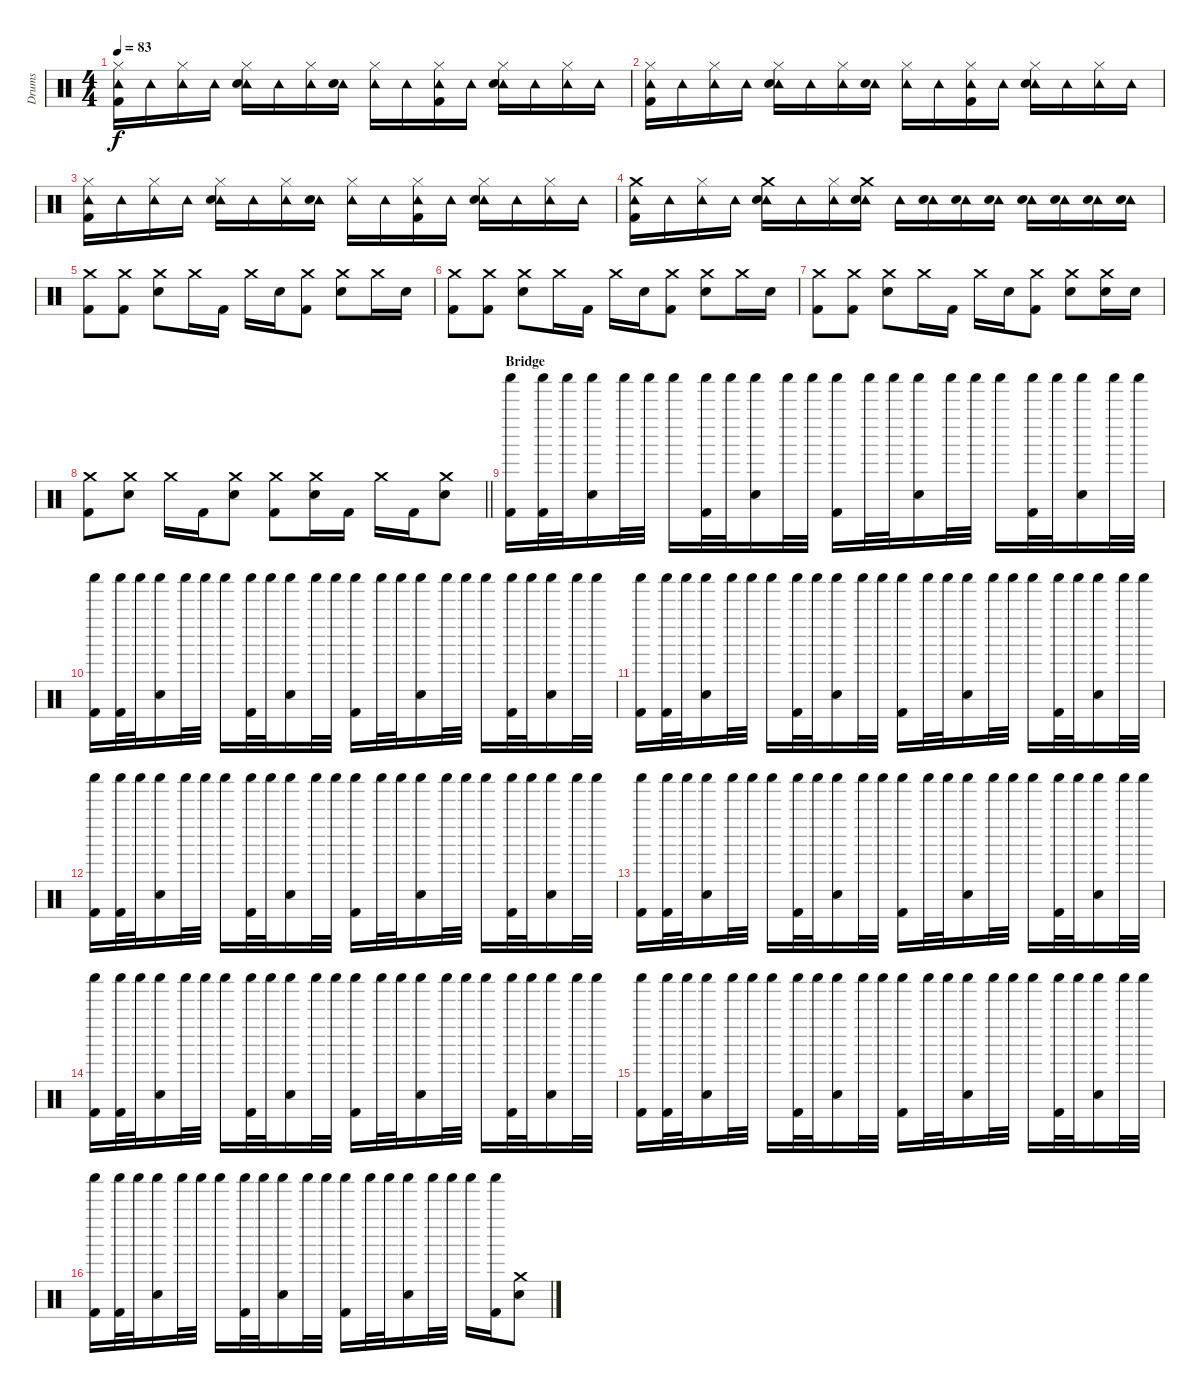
\track ("Drums" "Drums") {instrument percussion}
\staff {score}
\articulation defaults
\ts (4 4)
\tempo 83
\clef neutral
\ks c
("Tambourine (hit)" "Hi-Hat (closed)" "Kick (hit) 2").16{dy f} "Tambourine (hit)".16 ("Tambourine (hit)" "Hi-Hat (closed)").16 "Tambourine (hit)".16 ("Tambourine (hit)" "Hi-Hat (closed)" "Snare (hit) 2").16 "Tambourine (hit)".16 ("Tambourine (hit)" "Hi-Hat (closed)").16 ("Tambourine (hit)" "Snare (hit) 2").16 ("Tambourine (hit)" "Hi-Hat (closed)").16 "Tambourine (hit)".16 ("Tambourine (hit)" "Hi-Hat (closed)" "Kick (hit) 2").16 "Tambourine (hit)".16 ("Tambourine (hit)" "Hi-Hat (closed)" "Snare (hit) 2").16 "Tambourine (hit)".16 ("Tambourine (hit)" "Hi-Hat (closed)").16 "Tambourine (hit)".16 |
("Tambourine (hit)" "Hi-Hat (closed)" "Kick (hit) 2").16 "Tambourine (hit)".16 ("Tambourine (hit)" "Hi-Hat (closed)").16 "Tambourine (hit)".16 ("Tambourine (hit)" "Hi-Hat (closed)" "Snare (hit) 2").16 "Tambourine (hit)".16 ("Tambourine (hit)" "Hi-Hat (closed)").16 ("Tambourine (hit)" "Snare (hit) 2").16 ("Tambourine (hit)" "Hi-Hat (closed)").16 "Tambourine (hit)".16 ("Tambourine (hit)" "Hi-Hat (closed)" "Kick (hit) 2").16 "Tambourine (hit)".16 ("Tambourine (hit)" "Hi-Hat (closed)" "Snare (hit) 2").16 "Tambourine (hit)".16 ("Tambourine (hit)" "Hi-Hat (closed)").16 "Tambourine (hit)".16 |
("Tambourine (hit)" "Hi-Hat (closed)" "Kick (hit) 2").16 "Tambourine (hit)".16 ("Tambourine (hit)" "Hi-Hat (closed)").16 "Tambourine (hit)".16 ("Tambourine (hit)" "Hi-Hat (closed)" "Snare (hit) 2").16 "Tambourine (hit)".16 ("Tambourine (hit)" "Hi-Hat (closed)").16 ("Tambourine (hit)" "Snare (hit) 2").16 ("Tambourine (hit)" "Hi-Hat (closed)").16 "Tambourine (hit)".16 ("Tambourine (hit)" "Hi-Hat (closed)" "Kick (hit) 2").16 "Tambourine (hit)".16 ("Tambourine (hit)" "Hi-Hat (closed)" "Snare (hit) 2").16 "Tambourine (hit)".16 ("Tambourine (hit)" "Hi-Hat (closed)").16 "Tambourine (hit)".16 |
("Tambourine (hit)" "Crash medium (hit)" "Kick (hit) 2").16 "Tambourine (hit)".16 ("Tambourine (hit)" "Hi-Hat (closed)").16 "Tambourine (hit)".16 ("Tambourine (hit)" "Crash medium (hit)" "Snare (hit) 2").16 "Tambourine (hit)".16 ("Tambourine (hit)" "Hi-Hat (closed)").16 ("Tambourine (hit)" "Crash medium (hit)" "Snare (hit) 2").16 "Tambourine (hit)".16 ("Tambourine (hit)" "Snare (hit) 2").16 ("Tambourine (hit)" "Snare (hit) 2").16 ("Tambourine (hit)" "Snare (hit) 2").16 ("Tambourine (hit)" "Snare (hit) 2").16 ("Tambourine (hit)" "Snare (hit) 2").16 ("Tambourine (hit)" "Snare (hit) 2").16 ("Tambourine (hit)" "Snare (hit) 2").16 |
("Crash medium (hit)" "Kick (hit) 2").8 ("Crash medium (hit)" "Kick (hit) 2").8 ("Crash medium (hit)" "Snare (hit) 2").8 "Crash medium (hit)".16 "Kick (hit) 2".16 "Crash medium (hit)".16 "Snare (hit) 2".16 ("Crash medium (hit)" "Kick (hit) 2").8 ("Crash medium (hit)" "Snare (hit) 2").8 "Crash medium (hit)".16 "Snare (hit) 2".16 |
("Crash medium (hit)" "Kick (hit) 2").8 ("Crash medium (hit)" "Kick (hit) 2").8 ("Crash medium (hit)" "Snare (hit) 2").8 "Crash medium (hit)".16 "Kick (hit) 2".16 "Crash medium (hit)".16 "Snare (hit) 2".16 ("Crash medium (hit)" "Kick (hit) 2").8 ("Crash medium (hit)" "Snare (hit) 2").8 "Crash medium (hit)".16 "Snare (hit) 2".16 |
("Crash medium (hit)" "Kick (hit) 2").8 ("Crash medium (hit)" "Kick (hit) 2").8 ("Crash medium (hit)" "Snare (hit) 2").8 "Crash medium (hit)".16 "Kick (hit) 2".16 "Crash medium (hit)".16 "Snare (hit) 2".16 ("Crash medium (hit)" "Kick (hit) 2").8 ("Crash medium (hit)" "Snare (hit) 2").8 ("Crash medium (hit)" "Snare (hit) 2").16 "Snare (hit) 2".16 |
\barLineRight lightlight
("Crash medium (hit)" "Kick (hit) 2").8 ("Crash medium (hit)" "Snare (hit) 2").8 "Crash medium (hit)".16 "Kick (hit) 2".16 ("Crash medium (hit)" "Snare (hit) 2").8 ("Crash medium (hit)" "Kick (hit) 2").8 ("Crash medium (hit)" "Snare (hit) 2").16 "Kick (hit) 2".16 "Crash medium (hit)".16 "Kick (hit) 2".16 ("Crash medium (hit)" "Snare (hit) 2").8 |
\section ("" "Bridge")
("Shaker (hit)" "Kick (hit) 2").16 ("Shaker (hit)" "Kick (hit) 2").32 "Shaker (hit)".32 ("Shaker (hit)" "Snare (hit) 2").16 "Shaker (hit)".32 "Shaker (hit)".32 "Shaker (hit)".16 ("Shaker (hit)" "Kick (hit) 2").32 "Shaker (hit)".32 ("Shaker (hit)" "Snare (hit) 2").16 "Shaker (hit)".32 "Shaker (hit)".32 ("Shaker (hit)" "Kick (hit) 2").16 "Shaker (hit)".32 "Shaker (hit)".32 ("Shaker (hit)" "Snare (hit) 2").16 "Shaker (hit)".32 "Shaker (hit)".32 "Shaker (hit)".16 ("Shaker (hit)" "Kick (hit) 2").32 "Shaker (hit)".32 ("Shaker (hit)" "Snare (hit) 2").16 "Shaker (hit)".32 "Shaker (hit)".32 |
("Shaker (hit)" "Kick (hit) 2").16 ("Shaker (hit)" "Kick (hit) 2").32 "Shaker (hit)".32 ("Shaker (hit)" "Snare (hit) 2").16 "Shaker (hit)".32 "Shaker (hit)".32 "Shaker (hit)".16 ("Shaker (hit)" "Kick (hit) 2").32 "Shaker (hit)".32 ("Shaker (hit)" "Snare (hit) 2").16 "Shaker (hit)".32 "Shaker (hit)".32 ("Shaker (hit)" "Kick (hit) 2").16 "Shaker (hit)".32 "Shaker (hit)".32 ("Shaker (hit)" "Snare (hit) 2").16 "Shaker (hit)".32 "Shaker (hit)".32 "Shaker (hit)".16 ("Shaker (hit)" "Kick (hit) 2").32 "Shaker (hit)".32 ("Shaker (hit)" "Snare (hit) 2").16 "Shaker (hit)".32 "Shaker (hit)".32 |
("Shaker (hit)" "Kick (hit) 2").16 ("Shaker (hit)" "Kick (hit) 2").32 "Shaker (hit)".32 ("Shaker (hit)" "Snare (hit) 2").16 "Shaker (hit)".32 "Shaker (hit)".32 "Shaker (hit)".16 ("Shaker (hit)" "Kick (hit) 2").32 "Shaker (hit)".32 ("Shaker (hit)" "Snare (hit) 2").16 "Shaker (hit)".32 "Shaker (hit)".32 ("Shaker (hit)" "Kick (hit) 2").16 "Shaker (hit)".32 "Shaker (hit)".32 ("Shaker (hit)" "Snare (hit) 2").16 "Shaker (hit)".32 "Shaker (hit)".32 "Shaker (hit)".16 ("Shaker (hit)" "Kick (hit) 2").32 "Shaker (hit)".32 ("Shaker (hit)" "Snare (hit) 2").16 "Shaker (hit)".32 "Shaker (hit)".32 |
("Shaker (hit)" "Kick (hit) 2").16 ("Shaker (hit)" "Kick (hit) 2").32 "Shaker (hit)".32 ("Shaker (hit)" "Snare (hit) 2").16 "Shaker (hit)".32 "Shaker (hit)".32 "Shaker (hit)".16 ("Shaker (hit)" "Kick (hit) 2").32 "Shaker (hit)".32 ("Shaker (hit)" "Snare (hit) 2").16 "Shaker (hit)".32 "Shaker (hit)".32 ("Shaker (hit)" "Kick (hit) 2").16 "Shaker (hit)".32 "Shaker (hit)".32 ("Shaker (hit)" "Snare (hit) 2").16 "Shaker (hit)".32 "Shaker (hit)".32 "Shaker (hit)".16 ("Shaker (hit)" "Kick (hit) 2").32 "Shaker (hit)".32 ("Shaker (hit)" "Snare (hit) 2").16 "Shaker (hit)".32 "Shaker (hit)".32 |
("Shaker (hit)" "Kick (hit) 2").16 ("Shaker (hit)" "Kick (hit) 2").32 "Shaker (hit)".32 ("Shaker (hit)" "Snare (hit) 2").16 "Shaker (hit)".32 "Shaker (hit)".32 "Shaker (hit)".16 ("Shaker (hit)" "Kick (hit) 2").32 "Shaker (hit)".32 ("Shaker (hit)" "Snare (hit) 2").16 "Shaker (hit)".32 "Shaker (hit)".32 ("Shaker (hit)" "Kick (hit) 2").16 "Shaker (hit)".32 "Shaker (hit)".32 ("Shaker (hit)" "Snare (hit) 2").16 "Shaker (hit)".32 "Shaker (hit)".32 "Shaker (hit)".16 ("Shaker (hit)" "Kick (hit) 2").32 "Shaker (hit)".32 ("Shaker (hit)" "Snare (hit) 2").16 "Shaker (hit)".32 "Shaker (hit)".32 |
("Shaker (hit)" "Kick (hit) 2").16 ("Shaker (hit)" "Kick (hit) 2").32 "Shaker (hit)".32 ("Shaker (hit)" "Snare (hit) 2").16 "Shaker (hit)".32 "Shaker (hit)".32 "Shaker (hit)".16 ("Shaker (hit)" "Kick (hit) 2").32 "Shaker (hit)".32 ("Shaker (hit)" "Snare (hit) 2").16 "Shaker (hit)".32 "Shaker (hit)".32 ("Shaker (hit)" "Kick (hit) 2").16 "Shaker (hit)".32 "Shaker (hit)".32 ("Shaker (hit)" "Snare (hit) 2").16 "Shaker (hit)".32 "Shaker (hit)".32 "Shaker (hit)".16 ("Shaker (hit)" "Kick (hit) 2").32 "Shaker (hit)".32 ("Shaker (hit)" "Snare (hit) 2").16 "Shaker (hit)".32 "Shaker (hit)".32 |
("Shaker (hit)" "Kick (hit) 2").16 ("Shaker (hit)" "Kick (hit) 2").32 "Shaker (hit)".32 ("Shaker (hit)" "Snare (hit) 2").16 "Shaker (hit)".32 "Shaker (hit)".32 "Shaker (hit)".16 ("Shaker (hit)" "Kick (hit) 2").32 "Shaker (hit)".32 ("Shaker (hit)" "Snare (hit) 2").16 "Shaker (hit)".32 "Shaker (hit)".32 ("Shaker (hit)" "Kick (hit) 2").16 "Shaker (hit)".32 "Shaker (hit)".32 ("Shaker (hit)" "Snare (hit) 2").16 "Shaker (hit)".32 "Shaker (hit)".32 "Shaker (hit)".16 ("Shaker (hit)" "Kick (hit) 2").32 "Shaker (hit)".32 ("Shaker (hit)" "Snare (hit) 2").16 "Shaker (hit)".32 "Shaker (hit)".32 |
("Shaker (hit)" "Kick (hit) 2").16 ("Shaker (hit)" "Kick (hit) 2").32 "Shaker (hit)".32 ("Shaker (hit)" "Snare (hit) 2").16 "Shaker (hit)".32 "Shaker (hit)".32 "Shaker (hit)".16 ("Shaker (hit)" "Kick (hit) 2").32 "Shaker (hit)".32 ("Shaker (hit)" "Snare (hit) 2").16 "Shaker (hit)".32 "Shaker (hit)".32 ("Shaker (hit)" "Kick (hit) 2").16 "Shaker (hit)".32 "Shaker (hit)".32 ("Shaker (hit)" "Snare (hit) 2").16 "Shaker (hit)".32 "Shaker (hit)".32 "Shaker (hit)".16 ("Shaker (hit)" "Kick (hit) 2").16 ("Crash medium (hit)" "Snare (hit) 2").8
